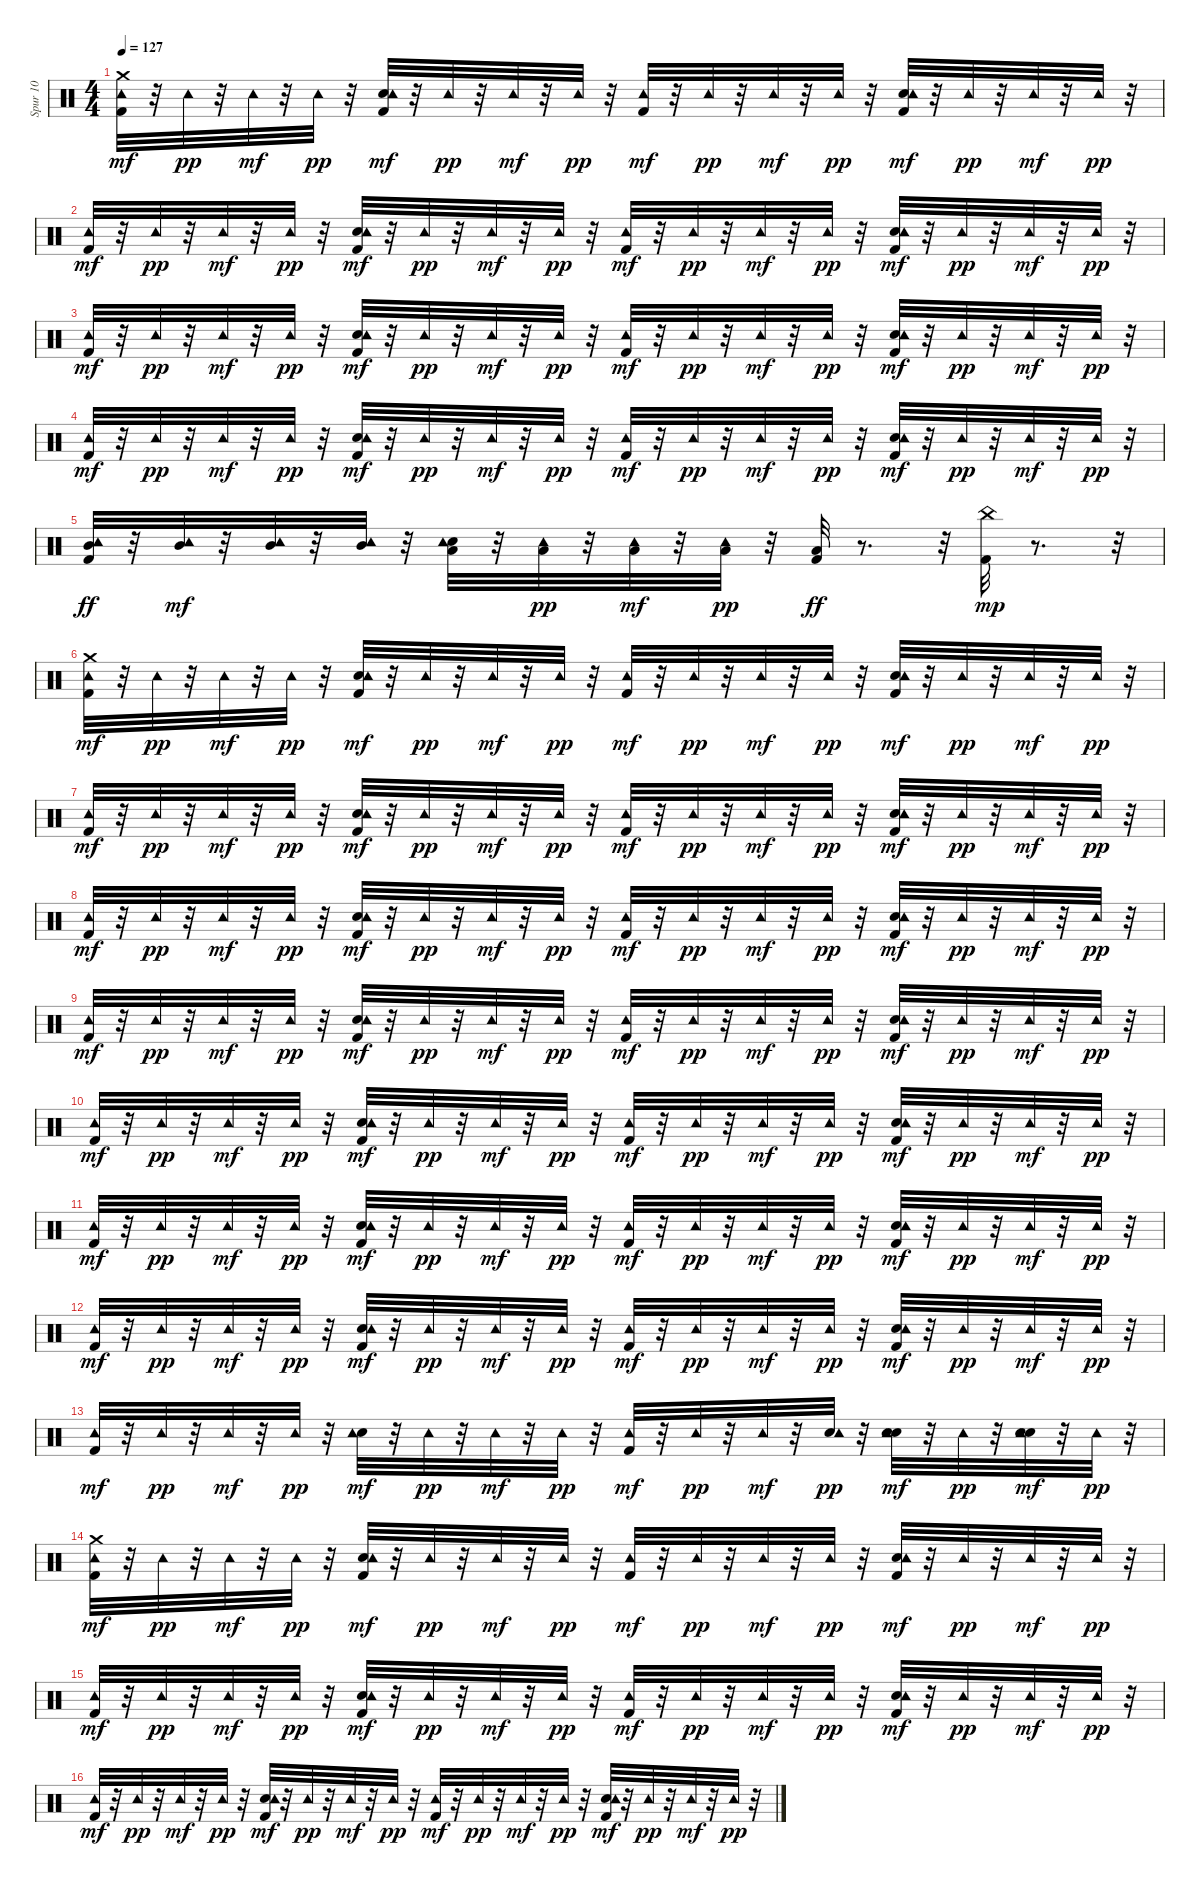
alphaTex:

\track ("Spur 10" "Spur 10") {instrument percussion}
\staff {score}
\articulation defaults
\ts (4 4)
\tempo 127
\clef neutral
\ks c
("Kick (hit) 2" "Tambourine (hit)" "Crash medium (hit)").32{dy mf} r.32 "Tambourine (hit)".32{dy pp} r.32 "Tambourine (hit)".32{dy mf} r.32 "Tambourine (hit)".32{dy pp} r.32 ("Kick (hit) 2" "Snare (hit) 2" "Tambourine (hit)").32{dy mf} r.32 "Tambourine (hit)".32{dy pp} r.32 "Tambourine (hit)".32{dy mf} r.32 "Tambourine (hit)".32{dy pp} r.32 ("Kick (hit) 2" "Tambourine (hit)").32{dy mf} r.32 "Tambourine (hit)".32{dy pp} r.32 "Tambourine (hit)".32{dy mf} r.32 "Tambourine (hit)".32{dy pp} r.32 ("Kick (hit) 2" "Snare (hit) 2" "Tambourine (hit)").32{dy mf} r.32 "Tambourine (hit)".32{dy pp} r.32 "Tambourine (hit)".32{dy mf} r.32 "Tambourine (hit)".32{dy pp} r.32 |
("Kick (hit) 2" "Tambourine (hit)").32{dy mf} r.32 "Tambourine (hit)".32{dy pp} r.32 "Tambourine (hit)".32{dy mf} r.32 "Tambourine (hit)".32{dy pp} r.32 ("Kick (hit) 2" "Snare (hit) 2" "Tambourine (hit)").32{dy mf} r.32 "Tambourine (hit)".32{dy pp} r.32 "Tambourine (hit)".32{dy mf} r.32 "Tambourine (hit)".32{dy pp} r.32 ("Kick (hit) 2" "Tambourine (hit)").32{dy mf} r.32 "Tambourine (hit)".32{dy pp} r.32 "Tambourine (hit)".32{dy mf} r.32 "Tambourine (hit)".32{dy pp} r.32 ("Kick (hit) 2" "Snare (hit) 2" "Tambourine (hit)").32{dy mf} r.32 "Tambourine (hit)".32{dy pp} r.32 "Tambourine (hit)".32{dy mf} r.32 "Tambourine (hit)".32{dy pp} r.32 |
("Kick (hit) 2" "Tambourine (hit)").32{dy mf} r.32 "Tambourine (hit)".32{dy pp} r.32 "Tambourine (hit)".32{dy mf} r.32 "Tambourine (hit)".32{dy pp} r.32 ("Kick (hit) 2" "Snare (hit) 2" "Tambourine (hit)").32{dy mf} r.32 "Tambourine (hit)".32{dy pp} r.32 "Tambourine (hit)".32{dy mf} r.32 "Tambourine (hit)".32{dy pp} r.32 ("Kick (hit) 2" "Tambourine (hit)").32{dy mf} r.32 "Tambourine (hit)".32{dy pp} r.32 "Tambourine (hit)".32{dy mf} r.32 "Tambourine (hit)".32{dy pp} r.32 ("Kick (hit) 2" "Snare (hit) 2" "Tambourine (hit)").32{dy mf} r.32 "Tambourine (hit)".32{dy pp} r.32 "Tambourine (hit)".32{dy mf} r.32 "Tambourine (hit)".32{dy pp} r.32 |
("Kick (hit) 2" "Tambourine (hit)").32{dy mf} r.32 "Tambourine (hit)".32{dy pp} r.32 "Tambourine (hit)".32{dy mf} r.32 "Tambourine (hit)".32{dy pp} r.32 ("Kick (hit) 2" "Snare (hit) 2" "Tambourine (hit)").32{dy mf} r.32 "Tambourine (hit)".32{dy pp} r.32 "Tambourine (hit)".32{dy mf} r.32 "Tambourine (hit)".32{dy pp} r.32 ("Kick (hit) 2" "Tambourine (hit)").32{dy mf} r.32 "Tambourine (hit)".32{dy pp} r.32 "Tambourine (hit)".32{dy mf} r.32 "Tambourine (hit)".32{dy pp} r.32 ("Kick (hit) 2" "Snare (hit) 2" "Tambourine (hit)").32{dy mf} r.32 "Tambourine (hit)".32{dy pp} r.32 "Tambourine (hit)".32{dy mf} r.32 "Tambourine (hit)".32{dy pp} r.32 |
("Kick (hit) 2" "Tambourine (hit)" "Mid Tom (hit)").32{dy ff} r.32 ("Tambourine (hit)" "Mid Tom (hit)").32{dy mf} r.32 ("Tambourine (hit)" "Mid Tom (hit)").32 r.32 ("Tambourine (hit)" "Mid Tom (hit)").32 r.32 ("Snare (hit) 2" "Low Tom (hit)" "Tambourine (hit)").32 r.32 ("Low Tom (hit)" "Tambourine (hit)").32{dy pp} r.32 ("Low Tom (hit)" "Tambourine (hit)").32{dy mf} r.32 ("Low Tom (hit)" "Tambourine (hit)").32{dy pp} r.32 ("Kick (hit) 2" "Low Floor Tom (hit)").32{dy ff} r.8{d} r.32 ("Kick (hit) 2" "China (hit)").32{dy mp} r.8{d} r.32 |
("Kick (hit) 2" "Tambourine (hit)" "Crash medium (hit)").32{dy mf} r.32 "Tambourine (hit)".32{dy pp} r.32 "Tambourine (hit)".32{dy mf} r.32 "Tambourine (hit)".32{dy pp} r.32 ("Kick (hit) 2" "Snare (hit) 2" "Tambourine (hit)").32{dy mf} r.32 "Tambourine (hit)".32{dy pp} r.32 "Tambourine (hit)".32{dy mf} r.32 "Tambourine (hit)".32{dy pp} r.32 ("Kick (hit) 2" "Tambourine (hit)").32{dy mf} r.32 "Tambourine (hit)".32{dy pp} r.32 "Tambourine (hit)".32{dy mf} r.32 "Tambourine (hit)".32{dy pp} r.32 ("Kick (hit) 2" "Snare (hit) 2" "Tambourine (hit)").32{dy mf} r.32 "Tambourine (hit)".32{dy pp} r.32 "Tambourine (hit)".32{dy mf} r.32 "Tambourine (hit)".32{dy pp} r.32 |
("Kick (hit) 2" "Tambourine (hit)").32{dy mf} r.32 "Tambourine (hit)".32{dy pp} r.32 "Tambourine (hit)".32{dy mf} r.32 "Tambourine (hit)".32{dy pp} r.32 ("Kick (hit) 2" "Snare (hit) 2" "Tambourine (hit)").32{dy mf} r.32 "Tambourine (hit)".32{dy pp} r.32 "Tambourine (hit)".32{dy mf} r.32 "Tambourine (hit)".32{dy pp} r.32 ("Kick (hit) 2" "Tambourine (hit)").32{dy mf} r.32 "Tambourine (hit)".32{dy pp} r.32 "Tambourine (hit)".32{dy mf} r.32 "Tambourine (hit)".32{dy pp} r.32 ("Kick (hit) 2" "Snare (hit) 2" "Tambourine (hit)").32{dy mf} r.32 "Tambourine (hit)".32{dy pp} r.32 "Tambourine (hit)".32{dy mf} r.32 "Tambourine (hit)".32{dy pp} r.32 |
("Kick (hit) 2" "Tambourine (hit)").32{dy mf} r.32 "Tambourine (hit)".32{dy pp} r.32 "Tambourine (hit)".32{dy mf} r.32 "Tambourine (hit)".32{dy pp} r.32 ("Kick (hit) 2" "Snare (hit) 2" "Tambourine (hit)").32{dy mf} r.32 "Tambourine (hit)".32{dy pp} r.32 "Tambourine (hit)".32{dy mf} r.32 "Tambourine (hit)".32{dy pp} r.32 ("Kick (hit) 2" "Tambourine (hit)").32{dy mf} r.32 "Tambourine (hit)".32{dy pp} r.32 "Tambourine (hit)".32{dy mf} r.32 "Tambourine (hit)".32{dy pp} r.32 ("Kick (hit) 2" "Snare (hit) 2" "Tambourine (hit)").32{dy mf} r.32 "Tambourine (hit)".32{dy pp} r.32 "Tambourine (hit)".32{dy mf} r.32 "Tambourine (hit)".32{dy pp} r.32 |
("Kick (hit) 2" "Tambourine (hit)").32{dy mf} r.32 "Tambourine (hit)".32{dy pp} r.32 "Tambourine (hit)".32{dy mf} r.32 "Tambourine (hit)".32{dy pp} r.32 ("Kick (hit) 2" "Snare (hit) 2" "Tambourine (hit)").32{dy mf} r.32 "Tambourine (hit)".32{dy pp} r.32 "Tambourine (hit)".32{dy mf} r.32 "Tambourine (hit)".32{dy pp} r.32 ("Kick (hit) 2" "Tambourine (hit)").32{dy mf} r.32 "Tambourine (hit)".32{dy pp} r.32 "Tambourine (hit)".32{dy mf} r.32 "Tambourine (hit)".32{dy pp} r.32 ("Kick (hit) 2" "Snare (hit) 2" "Tambourine (hit)").32{dy mf} r.32 "Tambourine (hit)".32{dy pp} r.32 "Tambourine (hit)".32{dy mf} r.32 "Tambourine (hit)".32{dy pp} r.32 |
("Kick (hit) 2" "Tambourine (hit)").32{dy mf} r.32 "Tambourine (hit)".32{dy pp} r.32 "Tambourine (hit)".32{dy mf} r.32 "Tambourine (hit)".32{dy pp} r.32 ("Kick (hit) 2" "Snare (hit) 2" "Tambourine (hit)").32{dy mf} r.32 "Tambourine (hit)".32{dy pp} r.32 "Tambourine (hit)".32{dy mf} r.32 "Tambourine (hit)".32{dy pp} r.32 ("Kick (hit) 2" "Tambourine (hit)").32{dy mf} r.32 "Tambourine (hit)".32{dy pp} r.32 "Tambourine (hit)".32{dy mf} r.32 "Tambourine (hit)".32{dy pp} r.32 ("Kick (hit) 2" "Snare (hit) 2" "Tambourine (hit)").32{dy mf} r.32 "Tambourine (hit)".32{dy pp} r.32 "Tambourine (hit)".32{dy mf} r.32 "Tambourine (hit)".32{dy pp} r.32 |
("Kick (hit) 2" "Tambourine (hit)").32{dy mf} r.32 "Tambourine (hit)".32{dy pp} r.32 "Tambourine (hit)".32{dy mf} r.32 "Tambourine (hit)".32{dy pp} r.32 ("Kick (hit) 2" "Snare (hit) 2" "Tambourine (hit)").32{dy mf} r.32 "Tambourine (hit)".32{dy pp} r.32 "Tambourine (hit)".32{dy mf} r.32 "Tambourine (hit)".32{dy pp} r.32 ("Kick (hit) 2" "Tambourine (hit)").32{dy mf} r.32 "Tambourine (hit)".32{dy pp} r.32 "Tambourine (hit)".32{dy mf} r.32 "Tambourine (hit)".32{dy pp} r.32 ("Kick (hit) 2" "Snare (hit) 2" "Tambourine (hit)").32{dy mf} r.32 "Tambourine (hit)".32{dy pp} r.32 "Tambourine (hit)".32{dy mf} r.32 "Tambourine (hit)".32{dy pp} r.32 |
("Kick (hit) 2" "Tambourine (hit)").32{dy mf} r.32 "Tambourine (hit)".32{dy pp} r.32 "Tambourine (hit)".32{dy mf} r.32 "Tambourine (hit)".32{dy pp} r.32 ("Kick (hit) 2" "Snare (hit) 2" "Tambourine (hit)").32{dy mf} r.32 "Tambourine (hit)".32{dy pp} r.32 "Tambourine (hit)".32{dy mf} r.32 "Tambourine (hit)".32{dy pp} r.32 ("Kick (hit) 2" "Tambourine (hit)").32{dy mf} r.32 "Tambourine (hit)".32{dy pp} r.32 "Tambourine (hit)".32{dy mf} r.32 "Tambourine (hit)".32{dy pp} r.32 ("Kick (hit) 2" "Snare (hit) 2" "Tambourine (hit)").32{dy mf} r.32 "Tambourine (hit)".32{dy pp} r.32 "Tambourine (hit)".32{dy mf} r.32 "Tambourine (hit)".32{dy pp} r.32 |
("Kick (hit) 2" "Tambourine (hit)").32{dy mf} r.32 "Tambourine (hit)".32{dy pp} r.32 "Tambourine (hit)".32{dy mf} r.32 "Tambourine (hit)".32{dy pp} r.32 ("Snare (hit) 2" "Tambourine (hit)").32{dy mf} r.32 "Tambourine (hit)".32{dy pp} r.32 "Tambourine (hit)".32{dy mf} r.32 "Tambourine (hit)".32{dy pp} r.32 ("Kick (hit) 2" "Tambourine (hit)").32{dy mf} r.32 "Tambourine (hit)".32{dy pp} r.32 "Tambourine (hit)".32{dy mf} r.32 ("Snare (hit) 2" "Tambourine (hit)").32{dy pp} r.32 ("Snare (hit) 2" "Electric Snare (hit)" "Tambourine (hit)").32{dy mf} r.32 "Tambourine (hit)".32{dy pp} r.32 ("Snare (hit) 2" "Electric Snare (hit)" "Tambourine (hit)").32{dy mf} r.32 "Tambourine (hit)".32{dy pp} r.32 |
("Kick (hit) 2" "Tambourine (hit)" "Crash medium (hit)").32{dy mf} r.32 "Tambourine (hit)".32{dy pp} r.32 "Tambourine (hit)".32{dy mf} r.32 "Tambourine (hit)".32{dy pp} r.32 ("Kick (hit) 2" "Snare (hit) 2" "Tambourine (hit)").32{dy mf} r.32 "Tambourine (hit)".32{dy pp} r.32 "Tambourine (hit)".32{dy mf} r.32 "Tambourine (hit)".32{dy pp} r.32 ("Kick (hit) 2" "Tambourine (hit)").32{dy mf} r.32 "Tambourine (hit)".32{dy pp} r.32 "Tambourine (hit)".32{dy mf} r.32 "Tambourine (hit)".32{dy pp} r.32 ("Kick (hit) 2" "Snare (hit) 2" "Tambourine (hit)").32{dy mf} r.32 "Tambourine (hit)".32{dy pp} r.32 "Tambourine (hit)".32{dy mf} r.32 "Tambourine (hit)".32{dy pp} r.32 |
("Kick (hit) 2" "Tambourine (hit)").32{dy mf} r.32 "Tambourine (hit)".32{dy pp} r.32 "Tambourine (hit)".32{dy mf} r.32 "Tambourine (hit)".32{dy pp} r.32 ("Kick (hit) 2" "Snare (hit) 2" "Tambourine (hit)").32{dy mf} r.32 "Tambourine (hit)".32{dy pp} r.32 "Tambourine (hit)".32{dy mf} r.32 "Tambourine (hit)".32{dy pp} r.32 ("Kick (hit) 2" "Tambourine (hit)").32{dy mf} r.32 "Tambourine (hit)".32{dy pp} r.32 "Tambourine (hit)".32{dy mf} r.32 "Tambourine (hit)".32{dy pp} r.32 ("Kick (hit) 2" "Snare (hit) 2" "Tambourine (hit)").32{dy mf} r.32 "Tambourine (hit)".32{dy pp} r.32 "Tambourine (hit)".32{dy mf} r.32 "Tambourine (hit)".32{dy pp} r.32 |
("Kick (hit) 2" "Tambourine (hit)").32{dy mf} r.32 "Tambourine (hit)".32{dy pp} r.32 "Tambourine (hit)".32{dy mf} r.32 "Tambourine (hit)".32{dy pp} r.32 ("Kick (hit) 2" "Snare (hit) 2" "Tambourine (hit)").32{dy mf} r.32 "Tambourine (hit)".32{dy pp} r.32 "Tambourine (hit)".32{dy mf} r.32 "Tambourine (hit)".32{dy pp} r.32 ("Kick (hit) 2" "Tambourine (hit)").32{dy mf} r.32 "Tambourine (hit)".32{dy pp} r.32 "Tambourine (hit)".32{dy mf} r.32 "Tambourine (hit)".32{dy pp} r.32 ("Kick (hit) 2" "Snare (hit) 2" "Tambourine (hit)").32{dy mf} r.32 "Tambourine (hit)".32{dy pp} r.32 "Tambourine (hit)".32{dy mf} r.32 "Tambourine (hit)".32{dy pp} r.32
